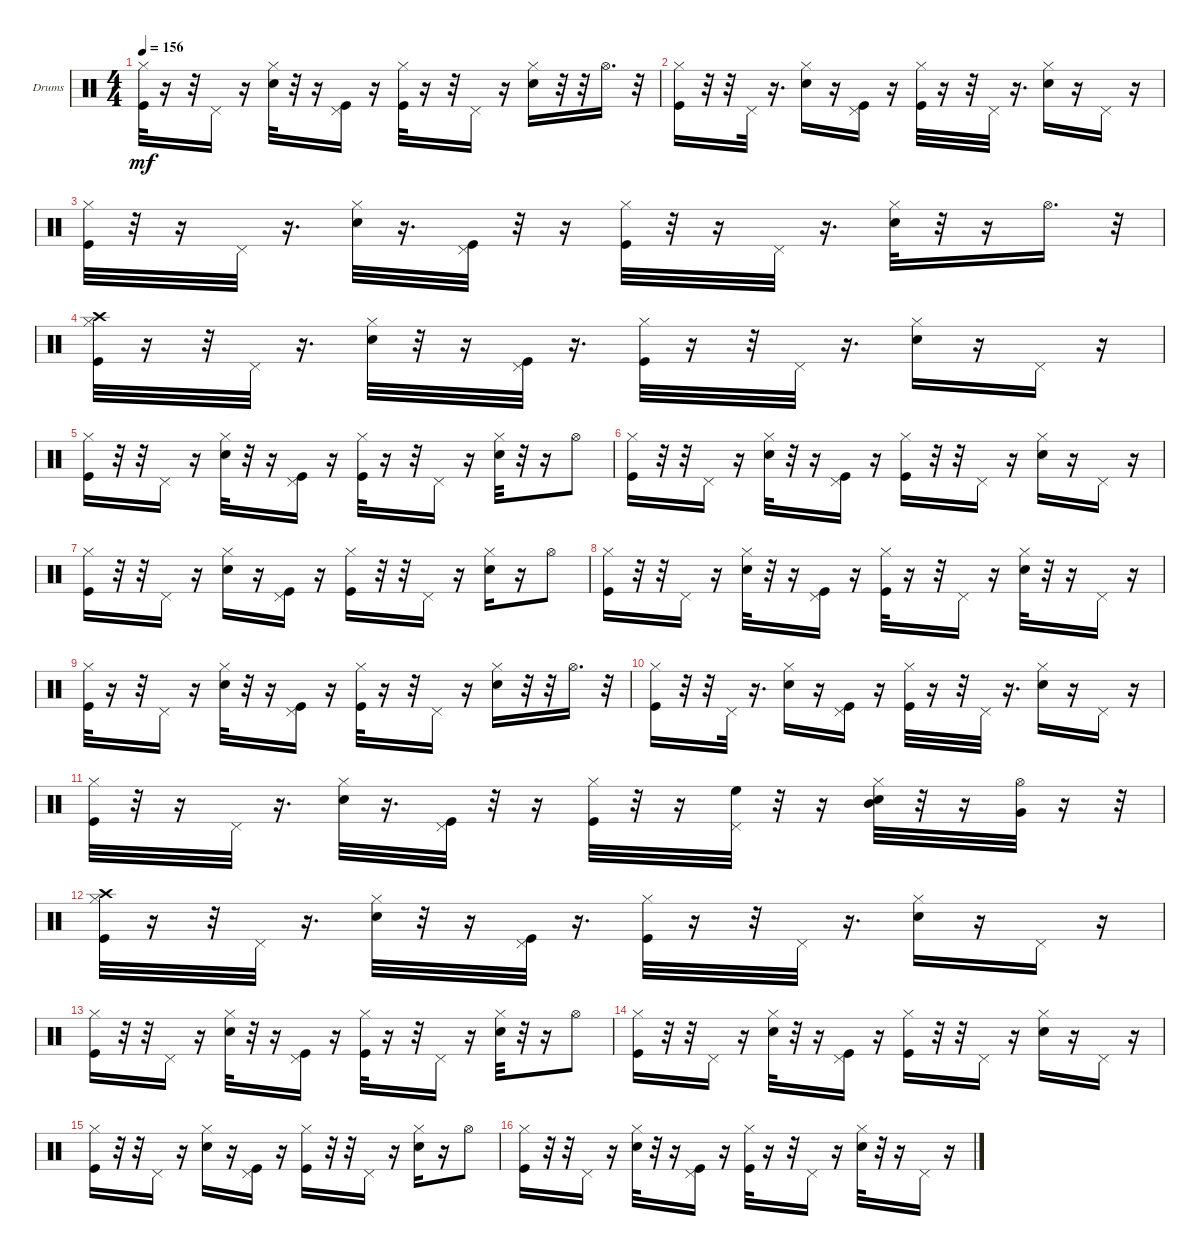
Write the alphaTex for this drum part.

\defaultSystemsLayout 4
\bracketExtendMode groupsimilarinstruments
\firstSystemTrackNameOrientation horizontal
\otherSystemsTrackNameOrientation horizontal
\track ("Drumkit" "Drums") {instrument percussion}
\staff {score}
\articulation defaults
\ts (4 4)
\tempo 156
\clef neutral
\ks c
("Kick (hit)" "Hi-Hat (closed)").32{dy mf} r.16 r.32 "Pedal Hi-Hat (hit)".16 r.16 ("Snare (hit) 2" "Hi-Hat (closed)").32 r.32 r.16 ("Kick (hit)" "Pedal Hi-Hat (hit)").16 r.16 ("Kick (hit)" "Hi-Hat (closed)").32 r.16 r.32 "Pedal Hi-Hat (hit)".16 r.16 ("Snare (hit) 2" "Hi-Hat (closed)").16 r.32 r.32 "Hi-Hat (open)".16{d} r.32 |
("Kick (hit)" "Hi-Hat (closed)").16 r.32 r.32 "Pedal Hi-Hat (hit)".32 r.16{d} ("Snare (hit) 2" "Hi-Hat (closed)").16 r.16 ("Kick (hit)" "Pedal Hi-Hat (hit)").16 r.16 ("Kick (hit)" "Hi-Hat (closed)").32 r.16 r.32 "Pedal Hi-Hat (hit)".32 r.16{d} ("Snare (hit) 2" "Hi-Hat (closed)").16 r.16 "Pedal Hi-Hat (hit)".16 r.16 |
("Kick (hit)" "Hi-Hat (closed)").32 r.32 r.16 "Pedal Hi-Hat (hit)".32 r.16{d} ("Snare (hit) 2" "Hi-Hat (closed)").32 r.16{d} ("Kick (hit)" "Pedal Hi-Hat (hit)").32 r.32 r.16 ("Kick (hit)" "Hi-Hat (closed)").32 r.32 r.16 "Pedal Hi-Hat (hit)".32 r.16{d} ("Snare (hit) 2" "Hi-Hat (closed)").32 r.32 r.16 "Hi-Hat (open)".16{d} r.32 |
("Kick (hit)" "Crash high (hit)" "Hi-Hat (closed)").32 r.16 r.32 "Pedal Hi-Hat (hit)".32 r.16{d} ("Snare (hit) 2" "Hi-Hat (closed)").32 r.32 r.16 ("Kick (hit)" "Pedal Hi-Hat (hit)").32 r.16{d} ("Kick (hit)" "Hi-Hat (closed)").32 r.16 r.32 "Pedal Hi-Hat (hit)".32 r.16{d} ("Snare (hit) 2" "Hi-Hat (closed)").16 r.16 "Pedal Hi-Hat (hit)".16 r.16 |
("Kick (hit)" "Hi-Hat (closed)").16 r.32 r.32 "Pedal Hi-Hat (hit)".16 r.16 ("Snare (hit) 2" "Hi-Hat (closed)").32 r.32 r.16 ("Kick (hit)" "Pedal Hi-Hat (hit)").16 r.16 ("Kick (hit)" "Hi-Hat (closed)").32 r.16 r.32 "Pedal Hi-Hat (hit)".16 r.16 ("Snare (hit) 2" "Hi-Hat (closed)").32 r.32 r.16 "Hi-Hat (open)".8 |
("Kick (hit)" "Hi-Hat (closed)").16 r.32 r.32 "Pedal Hi-Hat (hit)".16 r.16 ("Snare (hit) 2" "Hi-Hat (closed)").32 r.32 r.16 ("Kick (hit)" "Pedal Hi-Hat (hit)").16 r.16 ("Kick (hit)" "Hi-Hat (closed)").16 r.32 r.32 "Pedal Hi-Hat (hit)".16 r.16 ("Snare (hit) 2" "Hi-Hat (closed)").16 r.16 "Pedal Hi-Hat (hit)".16 r.16 |
("Kick (hit)" "Hi-Hat (closed)").16 r.32 r.32 "Pedal Hi-Hat (hit)".16 r.16 ("Snare (hit) 2" "Hi-Hat (closed)").16 r.16 ("Kick (hit)" "Pedal Hi-Hat (hit)").16 r.16 ("Kick (hit)" "Hi-Hat (closed)").16 r.32 r.32 "Pedal Hi-Hat (hit)".16 r.16 ("Snare (hit) 2" "Hi-Hat (closed)").16 r.16 "Hi-Hat (open)".8 |
("Kick (hit)" "Hi-Hat (closed)").16 r.32 r.32 "Pedal Hi-Hat (hit)".16 r.16 ("Snare (hit) 2" "Hi-Hat (closed)").32 r.32 r.16 ("Kick (hit)" "Pedal Hi-Hat (hit)").16 r.16 ("Kick (hit)" "Hi-Hat (closed)").32 r.16 r.32 "Pedal Hi-Hat (hit)".16 r.16 ("Snare (hit) 2" "Hi-Hat (closed)").32 r.32 r.16 "Pedal Hi-Hat (hit)".16 r.16 |
("Kick (hit)" "Hi-Hat (closed)").32 r.16 r.32 "Pedal Hi-Hat (hit)".16 r.16 ("Snare (hit) 2" "Hi-Hat (closed)").32 r.32 r.16 ("Kick (hit)" "Pedal Hi-Hat (hit)").16 r.16 ("Kick (hit)" "Hi-Hat (closed)").32 r.16 r.32 "Pedal Hi-Hat (hit)".16 r.16 ("Snare (hit) 2" "Hi-Hat (closed)").16 r.32 r.32 "Hi-Hat (open)".16{d} r.32 |
("Kick (hit)" "Hi-Hat (closed)").16 r.32 r.32 "Pedal Hi-Hat (hit)".32 r.16{d} ("Snare (hit) 2" "Hi-Hat (closed)").16 r.16 ("Kick (hit)" "Pedal Hi-Hat (hit)").16 r.16 ("Kick (hit)" "Hi-Hat (closed)").32 r.16 r.32 "Pedal Hi-Hat (hit)".32 r.16{d} ("Snare (hit) 2" "Hi-Hat (closed)").16 r.16 "Pedal Hi-Hat (hit)".16 r.16 |
("Kick (hit)" "Hi-Hat (closed)").32 r.32 r.16 "Pedal Hi-Hat (hit)".32 r.16{d} ("Snare (hit) 2" "Hi-Hat (closed)").32 r.16{d} ("Kick (hit)" "Pedal Hi-Hat (hit)").32 r.32 r.16 ("Kick (hit)" "Hi-Hat (closed)").32 r.32 r.16 ("Pedal Hi-Hat (hit)" "High Floor Tom (hit)").32 r.32 r.16 ("Snare (hit) 2" "Hi-Hat (closed)" "Mid Tom (hit)").32 r.32 r.16 ("Hi-Hat (open)" "Very Low Tom (hit)").32 r.16 r.32 |
("Kick (hit)" "Crash high (hit)" "Hi-Hat (closed)").32 r.16 r.32 "Pedal Hi-Hat (hit)".32 r.16{d} ("Snare (hit) 2" "Hi-Hat (closed)").32 r.32 r.16 ("Kick (hit)" "Pedal Hi-Hat (hit)").32 r.16{d} ("Kick (hit)" "Hi-Hat (closed)").32 r.16 r.32 "Pedal Hi-Hat (hit)".32 r.16{d} ("Snare (hit) 2" "Hi-Hat (closed)").16 r.16 "Pedal Hi-Hat (hit)".16 r.16 |
("Kick (hit)" "Hi-Hat (closed)").16 r.32 r.32 "Pedal Hi-Hat (hit)".16 r.16 ("Snare (hit) 2" "Hi-Hat (closed)").32 r.32 r.16 ("Kick (hit)" "Pedal Hi-Hat (hit)").16 r.16 ("Kick (hit)" "Hi-Hat (closed)").32 r.16 r.32 "Pedal Hi-Hat (hit)".16 r.16 ("Snare (hit) 2" "Hi-Hat (closed)").32 r.32 r.16 "Hi-Hat (open)".8 |
("Kick (hit)" "Hi-Hat (closed)").16 r.32 r.32 "Pedal Hi-Hat (hit)".16 r.16 ("Snare (hit) 2" "Hi-Hat (closed)").32 r.32 r.16 ("Kick (hit)" "Pedal Hi-Hat (hit)").16 r.16 ("Kick (hit)" "Hi-Hat (closed)").16 r.32 r.32 "Pedal Hi-Hat (hit)".16 r.16 ("Snare (hit) 2" "Hi-Hat (closed)").16 r.16 "Pedal Hi-Hat (hit)".16 r.16 |
("Kick (hit)" "Hi-Hat (closed)").16 r.32 r.32 "Pedal Hi-Hat (hit)".16 r.16 ("Snare (hit) 2" "Hi-Hat (closed)").16 r.16 ("Kick (hit)" "Pedal Hi-Hat (hit)").16 r.16 ("Kick (hit)" "Hi-Hat (closed)").16 r.32 r.32 "Pedal Hi-Hat (hit)".16 r.16 ("Snare (hit) 2" "Hi-Hat (closed)").16 r.16 "Hi-Hat (open)".8 |
("Kick (hit)" "Hi-Hat (closed)").16 r.32 r.32 "Pedal Hi-Hat (hit)".16 r.16 ("Snare (hit) 2" "Hi-Hat (closed)").32 r.32 r.16 ("Kick (hit)" "Pedal Hi-Hat (hit)").16 r.16 ("Kick (hit)" "Hi-Hat (closed)").32 r.16 r.32 "Pedal Hi-Hat (hit)".16 r.16 ("Snare (hit) 2" "Hi-Hat (closed)").32 r.32 r.16 "Pedal Hi-Hat (hit)".16 r.16
